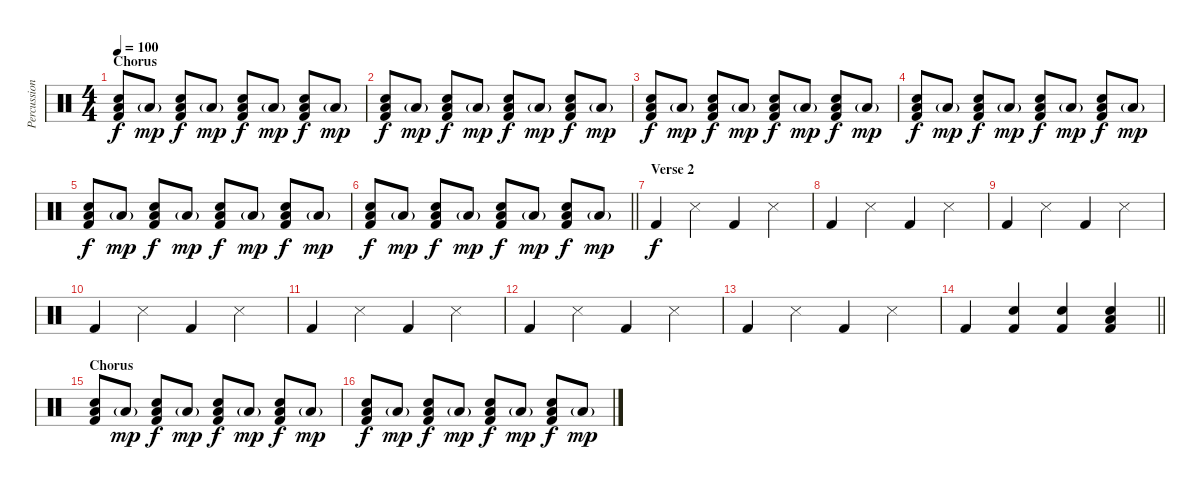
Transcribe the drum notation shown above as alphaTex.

\track ("Percussion" "Percussion") {instrument percussion}
\staff {score}
\articulation defaults
\ts (4 4)
\section ("" "Chorus")
\tempo 100
\clef neutral
\ks c
("Hand Clap (hit)" "Low Tom (hit)" "Kick (hit) 2").8{dy f} "Low Tom (hit)"{g}.8{dy mp} ("Hand Clap (hit)" "Low Tom (hit)" "Kick (hit) 2").8{dy f} "Low Tom (hit)"{g}.8{dy mp} ("Hand Clap (hit)" "Low Tom (hit)" "Kick (hit) 2").8{dy f} "Low Tom (hit)"{g}.8{dy mp} ("Hand Clap (hit)" "Low Tom (hit)" "Kick (hit) 2").8{dy f} "Low Tom (hit)"{g}.8{dy mp} |
("Hand Clap (hit)" "Low Tom (hit)" "Kick (hit) 2").8{dy f} "Low Tom (hit)"{g}.8{dy mp} ("Hand Clap (hit)" "Low Tom (hit)" "Kick (hit) 2").8{dy f} "Low Tom (hit)"{g}.8{dy mp} ("Hand Clap (hit)" "Low Tom (hit)" "Kick (hit) 2").8{dy f} "Low Tom (hit)"{g}.8{dy mp} ("Hand Clap (hit)" "Low Tom (hit)" "Kick (hit) 2").8{dy f} "Low Tom (hit)"{g}.8{dy mp} |
("Hand Clap (hit)" "Low Tom (hit)" "Kick (hit) 2").8{dy f} "Low Tom (hit)"{g}.8{dy mp} ("Hand Clap (hit)" "Low Tom (hit)" "Kick (hit) 2").8{dy f} "Low Tom (hit)"{g}.8{dy mp} ("Hand Clap (hit)" "Low Tom (hit)" "Kick (hit) 2").8{dy f} "Low Tom (hit)"{g}.8{dy mp} ("Hand Clap (hit)" "Low Tom (hit)" "Kick (hit) 2").8{dy f} "Low Tom (hit)"{g}.8{dy mp} |
("Hand Clap (hit)" "Low Tom (hit)" "Kick (hit) 2").8{dy f} "Low Tom (hit)"{g}.8{dy mp} ("Hand Clap (hit)" "Low Tom (hit)" "Kick (hit) 2").8{dy f} "Low Tom (hit)"{g}.8{dy mp} ("Hand Clap (hit)" "Low Tom (hit)" "Kick (hit) 2").8{dy f} "Low Tom (hit)"{g}.8{dy mp} ("Hand Clap (hit)" "Low Tom (hit)" "Kick (hit) 2").8{dy f} "Low Tom (hit)"{g}.8{dy mp} |
("Hand Clap (hit)" "Low Tom (hit)" "Kick (hit) 2").8{dy f} "Low Tom (hit)"{g}.8{dy mp} ("Hand Clap (hit)" "Low Tom (hit)" "Kick (hit) 2").8{dy f} "Low Tom (hit)"{g}.8{dy mp} ("Hand Clap (hit)" "Low Tom (hit)" "Kick (hit) 2").8{dy f} "Low Tom (hit)"{g}.8{dy mp} ("Hand Clap (hit)" "Low Tom (hit)" "Kick (hit) 2").8{dy f} "Low Tom (hit)"{g}.8{dy mp} |
\barLineRight lightlight
("Hand Clap (hit)" "Low Tom (hit)" "Kick (hit) 2").8{dy f} "Low Tom (hit)"{g}.8{dy mp} ("Hand Clap (hit)" "Low Tom (hit)" "Kick (hit) 2").8{dy f} "Low Tom (hit)"{g}.8{dy mp} ("Hand Clap (hit)" "Low Tom (hit)" "Kick (hit) 2").8{dy f} "Low Tom (hit)"{g}.8{dy mp} ("Hand Clap (hit)" "Low Tom (hit)" "Kick (hit) 2").8{dy f} "Low Tom (hit)"{g}.8{dy mp} |
\section ("" "Verse 2")
"Kick (hit) 2".4{dy f} "Snare (side stick) 3".4 "Kick (hit) 2".4 "Snare (side stick) 3".4 |
"Kick (hit) 2".4 "Snare (side stick) 3".4 "Kick (hit) 2".4 "Snare (side stick) 3".4 |
"Kick (hit) 2".4 "Snare (side stick) 3".4 "Kick (hit) 2".4 "Snare (side stick) 3".4 |
"Kick (hit) 2".4 "Snare (side stick) 3".4 "Kick (hit) 2".4 "Snare (side stick) 3".4 |
"Kick (hit) 2".4 "Snare (side stick) 3".4 "Kick (hit) 2".4 "Snare (side stick) 3".4 |
"Kick (hit) 2".4 "Snare (side stick) 3".4 "Kick (hit) 2".4 "Snare (side stick) 3".4 |
"Kick (hit) 2".4 "Snare (side stick) 3".4 "Kick (hit) 2".4 "Snare (side stick) 3".4 |
\barLineRight lightlight "Kick (hit) 2".4
("Hand Clap (hit)" "Kick (hit) 2").4 ("Hand Clap (hit)" "Kick (hit) 2").4 ("Hand Clap (hit)" "Low Tom (hit)" "Kick (hit) 2").4 |
\section ("" "Chorus")
("Hand Clap (hit)" "Low Tom (hit)" "Kick (hit) 2").8 "Low Tom (hit)"{g}.8{dy mp} ("Hand Clap (hit)" "Low Tom (hit)" "Kick (hit) 2").8{dy f} "Low Tom (hit)"{g}.8{dy mp} ("Hand Clap (hit)" "Low Tom (hit)" "Kick (hit) 2").8{dy f} "Low Tom (hit)"{g}.8{dy mp} ("Hand Clap (hit)" "Low Tom (hit)" "Kick (hit) 2").8{dy f} "Low Tom (hit)"{g}.8{dy mp} |
("Hand Clap (hit)" "Low Tom (hit)" "Kick (hit) 2").8{dy f} "Low Tom (hit)"{g}.8{dy mp} ("Hand Clap (hit)" "Low Tom (hit)" "Kick (hit) 2").8{dy f} "Low Tom (hit)"{g}.8{dy mp} ("Hand Clap (hit)" "Low Tom (hit)" "Kick (hit) 2").8{dy f} "Low Tom (hit)"{g}.8{dy mp} ("Hand Clap (hit)" "Low Tom (hit)" "Kick (hit) 2").8{dy f} "Low Tom (hit)"{g}.8{dy mp}
